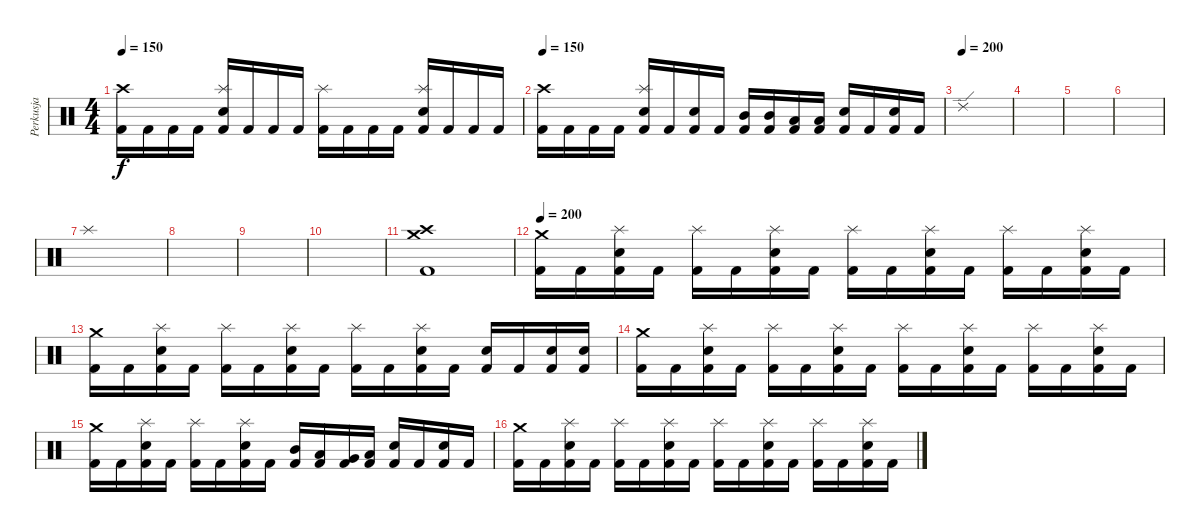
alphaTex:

\track ("Perkusja" "Perkusja") {instrument percussion}
\staff {score}
\articulation defaults
\ts (4 4)
\tempo 150
\clef neutral
\ks c
("Crash high (hit)" "Kick (hit) 2").16{dy f} "Kick (hit) 2".16 "Kick (hit) 2".16 "Kick (hit) 2".16 ("Splash (hit)" "Electric Snare (hit)" "Kick (hit) 2").16 "Kick (hit) 2".16 "Kick (hit) 2".16 "Kick (hit) 2".16 ("Splash (hit)" "Kick (hit) 2").16 "Kick (hit) 2".16 "Kick (hit) 2".16 "Kick (hit) 2".16 ("Splash (hit)" "Electric Snare (hit)" "Kick (hit) 2").16 "Kick (hit) 2".16 "Kick (hit) 2".16 "Kick (hit) 2".16 |
\tempo 150
("Crash high (hit)" "Kick (hit) 2").16 "Kick (hit) 2".16 "Kick (hit) 2".16 "Kick (hit) 2".16 ("Splash (hit)" "Electric Snare (hit)" "Kick (hit) 2").16 "Kick (hit) 2".16 ("Electric Snare (hit)" "Kick (hit) 2").16 "Kick (hit) 2".16 ("Mid Tom (hit)" "Kick (hit) 2").16 ("Mid Tom (hit)" "Kick (hit) 2").16 ("Low Tom (hit)" "Kick (hit) 2").16 ("Low Tom (hit)" "Kick (hit) 2").16 ("Electric Snare (hit)" "Kick (hit) 2").16 "Kick (hit) 2".16 ("Electric Snare (hit)" "Kick (hit) 2").16 "Kick (hit) 2".16 |
\tempo (200)
"Ride (edge) 2".1 |
|
|
|
"Splash (hit)".1 |
|
|
|
("Crash high (hit)" "Kick (hit) 2" "Crash medium (hit)").1 |
\tempo 200
("Crash medium (hit)" "Kick (hit) 2").16 "Kick (hit) 2".16 ("Splash (hit)" "Electric Snare (hit)" "Kick (hit) 2").16 "Kick (hit) 2".16 ("Splash (hit)" "Kick (hit) 2").16 "Kick (hit) 2".16 ("Splash (hit)" "Electric Snare (hit)" "Kick (hit) 2").16 "Kick (hit) 2".16 ("Splash (hit)" "Kick (hit) 2").16 "Kick (hit) 2".16 ("Splash (hit)" "Electric Snare (hit)" "Kick (hit) 2").16 "Kick (hit) 2".16 ("Splash (hit)" "Kick (hit) 2").16 "Kick (hit) 2".16 ("Splash (hit)" "Electric Snare (hit)" "Kick (hit) 2").16 "Kick (hit) 2".16 |
("Crash medium (hit)" "Kick (hit) 2").16 "Kick (hit) 2".16 ("Splash (hit)" "Electric Snare (hit)" "Kick (hit) 2").16 "Kick (hit) 2".16 ("Splash (hit)" "Kick (hit) 2").16 "Kick (hit) 2".16 ("Splash (hit)" "Electric Snare (hit)" "Kick (hit) 2").16 "Kick (hit) 2".16 ("Splash (hit)" "Kick (hit) 2").16 "Kick (hit) 2".16 ("Splash (hit)" "Electric Snare (hit)" "Kick (hit) 2").16 "Kick (hit) 2".16 ("Electric Snare (hit)" "Kick (hit) 2").16 "Kick (hit) 2".16 ("Electric Snare (hit)" "Kick (hit) 2").16 ("Electric Snare (hit)" "Kick (hit) 2").16 |
("Crash medium (hit)" "Kick (hit) 2").16 "Kick (hit) 2".16 ("Splash (hit)" "Electric Snare (hit)" "Kick (hit) 2").16 "Kick (hit) 2".16 ("Splash (hit)" "Kick (hit) 2").16 "Kick (hit) 2".16 ("Splash (hit)" "Electric Snare (hit)" "Kick (hit) 2").16 "Kick (hit) 2".16 ("Splash (hit)" "Kick (hit) 2").16 "Kick (hit) 2".16 ("Splash (hit)" "Electric Snare (hit)" "Kick (hit) 2").16 "Kick (hit) 2".16 ("Splash (hit)" "Kick (hit) 2").16 "Kick (hit) 2".16 ("Splash (hit)" "Electric Snare (hit)" "Kick (hit) 2").16 "Kick (hit) 2".16 |
("Crash medium (hit)" "Kick (hit) 2").16 "Kick (hit) 2".16 ("Splash (hit)" "Electric Snare (hit)" "Kick (hit) 2").16 "Kick (hit) 2".16 ("Splash (hit)" "Kick (hit) 2").16 "Kick (hit) 2".16 ("Splash (hit)" "Electric Snare (hit)" "Kick (hit) 2").16 "Kick (hit) 2".16 ("Mid Tom (hit)" "Kick (hit) 2").16 ("Low Tom (hit)" "Kick (hit) 2").16 ("Very Low Tom (hit)" "Kick (hit) 2").16 ("Low Floor Tom (hit)" "Kick (hit) 2").16 ("Electric Snare (hit)" "Kick (hit) 2").16 "Kick (hit) 2".16 ("Electric Snare (hit)" "Kick (hit) 2").16 "Kick (hit) 2".16 |
("Crash medium (hit)" "Kick (hit) 2").16 "Kick (hit) 2".16 ("Splash (hit)" "Electric Snare (hit)" "Kick (hit) 2").16 "Kick (hit) 2".16 ("Splash (hit)" "Kick (hit) 2").16 "Kick (hit) 2".16 ("Splash (hit)" "Electric Snare (hit)" "Kick (hit) 2").16 "Kick (hit) 2".16 ("Splash (hit)" "Kick (hit) 2").16 "Kick (hit) 2".16 ("Splash (hit)" "Electric Snare (hit)" "Kick (hit) 2").16 "Kick (hit) 2".16 ("Splash (hit)" "Kick (hit) 2").16 "Kick (hit) 2".16 ("Splash (hit)" "Electric Snare (hit)" "Kick (hit) 2").16 "Kick (hit) 2".16
